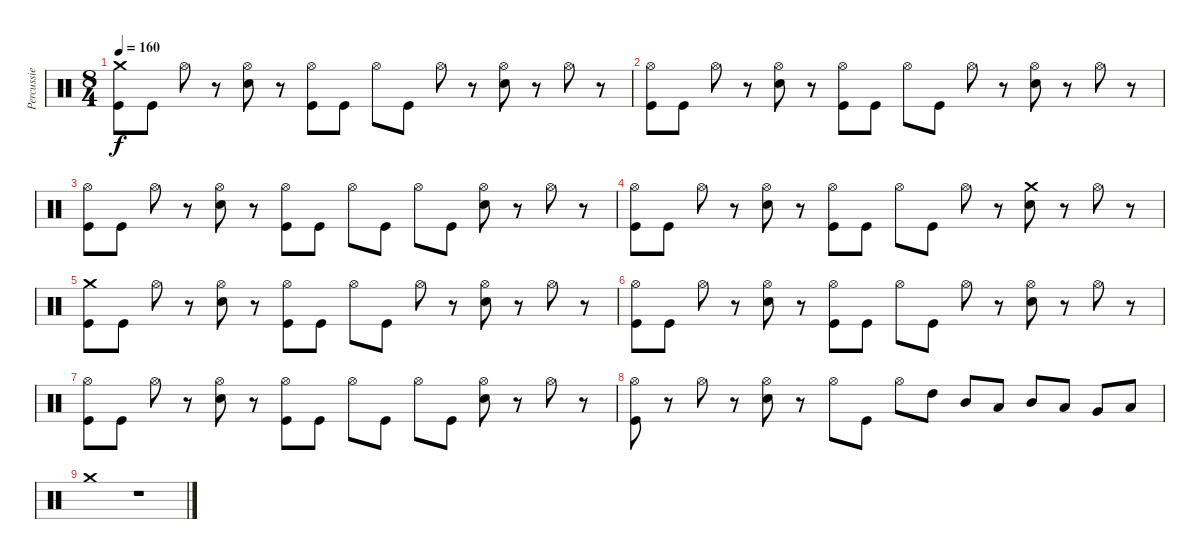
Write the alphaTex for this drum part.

\track ("Percussie" "Percussie") {instrument percussion}
\staff {score}
\articulation defaults
\ts (8 4)
\tempo 160
\clef neutral
\ks c
("Crash medium (hit)" "Kick (hit)").8{dy f} "Kick (hit)".8 "Hi-Hat (open)".8 r.8 ("Electric Snare (hit)" "Hi-Hat (open)").8 r.8 ("Hi-Hat (open)" "Kick (hit)").8 "Kick (hit)".8 "Hi-Hat (open)".8 "Kick (hit)".8 "Hi-Hat (open)".8 r.8 ("Electric Snare (hit)" "Hi-Hat (open)").8 r.8 "Hi-Hat (open)".8 r.8 |
("Hi-Hat (open)" "Kick (hit)").8 "Kick (hit)".8 "Hi-Hat (open)".8 r.8 ("Electric Snare (hit)" "Hi-Hat (open)").8 r.8 ("Hi-Hat (open)" "Kick (hit)").8 "Kick (hit)".8 "Hi-Hat (open)".8 "Kick (hit)".8 "Hi-Hat (open)".8 r.8 ("Electric Snare (hit)" "Hi-Hat (open)").8 r.8 "Hi-Hat (open)".8 r.8 |
("Hi-Hat (open)" "Kick (hit)").8 "Kick (hit)".8 "Hi-Hat (open)".8 r.8 ("Electric Snare (hit)" "Hi-Hat (open)").8 r.8 ("Hi-Hat (open)" "Kick (hit)").8 "Kick (hit)".8 "Hi-Hat (open)".8 "Kick (hit)".8 "Hi-Hat (open)".8 "Kick (hit)".8 ("Electric Snare (hit)" "Hi-Hat (open)").8 r.8 "Hi-Hat (open)".8 r.8 |
("Hi-Hat (open)" "Kick (hit)").8 "Kick (hit)".8 "Hi-Hat (open)".8 r.8 ("Electric Snare (hit)" "Hi-Hat (open)").8 r.8 ("Hi-Hat (open)" "Kick (hit)").8 "Kick (hit)".8 "Hi-Hat (open)".8 "Kick (hit)".8 "Hi-Hat (open)".8 r.8 ("Electric Snare (hit)" "Crash medium (hit)").8 r.8 "Hi-Hat (open)".8 r.8 |
("Crash medium (hit)" "Kick (hit)").8 "Kick (hit)".8 "Hi-Hat (open)".8 r.8 ("Electric Snare (hit)" "Hi-Hat (open)").8 r.8 ("Hi-Hat (open)" "Kick (hit)").8 "Kick (hit)".8 "Hi-Hat (open)".8 "Kick (hit)".8 "Hi-Hat (open)".8 r.8 ("Electric Snare (hit)" "Hi-Hat (open)").8 r.8 "Hi-Hat (open)".8 r.8 |
("Hi-Hat (open)" "Kick (hit)").8 "Kick (hit)".8 "Hi-Hat (open)".8 r.8 ("Electric Snare (hit)" "Hi-Hat (open)").8 r.8 ("Hi-Hat (open)" "Kick (hit)").8 "Kick (hit)".8 "Hi-Hat (open)".8 "Kick (hit)".8 "Hi-Hat (open)".8 r.8 ("Electric Snare (hit)" "Hi-Hat (open)").8 r.8 "Hi-Hat (open)".8 r.8 |
("Hi-Hat (open)" "Kick (hit)").8 "Kick (hit)".8 "Hi-Hat (open)".8 r.8 ("Electric Snare (hit)" "Hi-Hat (open)").8 r.8 ("Hi-Hat (open)" "Kick (hit)").8 "Kick (hit)".8 "Hi-Hat (open)".8 "Kick (hit)".8 "Hi-Hat (open)".8 "Kick (hit)".8 ("Electric Snare (hit)" "Hi-Hat (open)").8 r.8 "Hi-Hat (open)".8 r.8 |
("Hi-Hat (open)" "Kick (hit)").8 r.8 "Hi-Hat (open)".8 r.8 ("Electric Snare (hit)" "Hi-Hat (open)").8 r.8 "Hi-Hat (open)".8 "Kick (hit)".8 "Hi-Hat (open)".8 "High Tom (hit)".8 "Mid Tom (hit)".8 "Low Tom (hit)".8 "Mid Tom (hit)".8 "Low Tom (hit)".8 "Very Low Tom (hit)".8 "Low Floor Tom (hit)".8 |
"Crash medium (hit)".1 r.1
